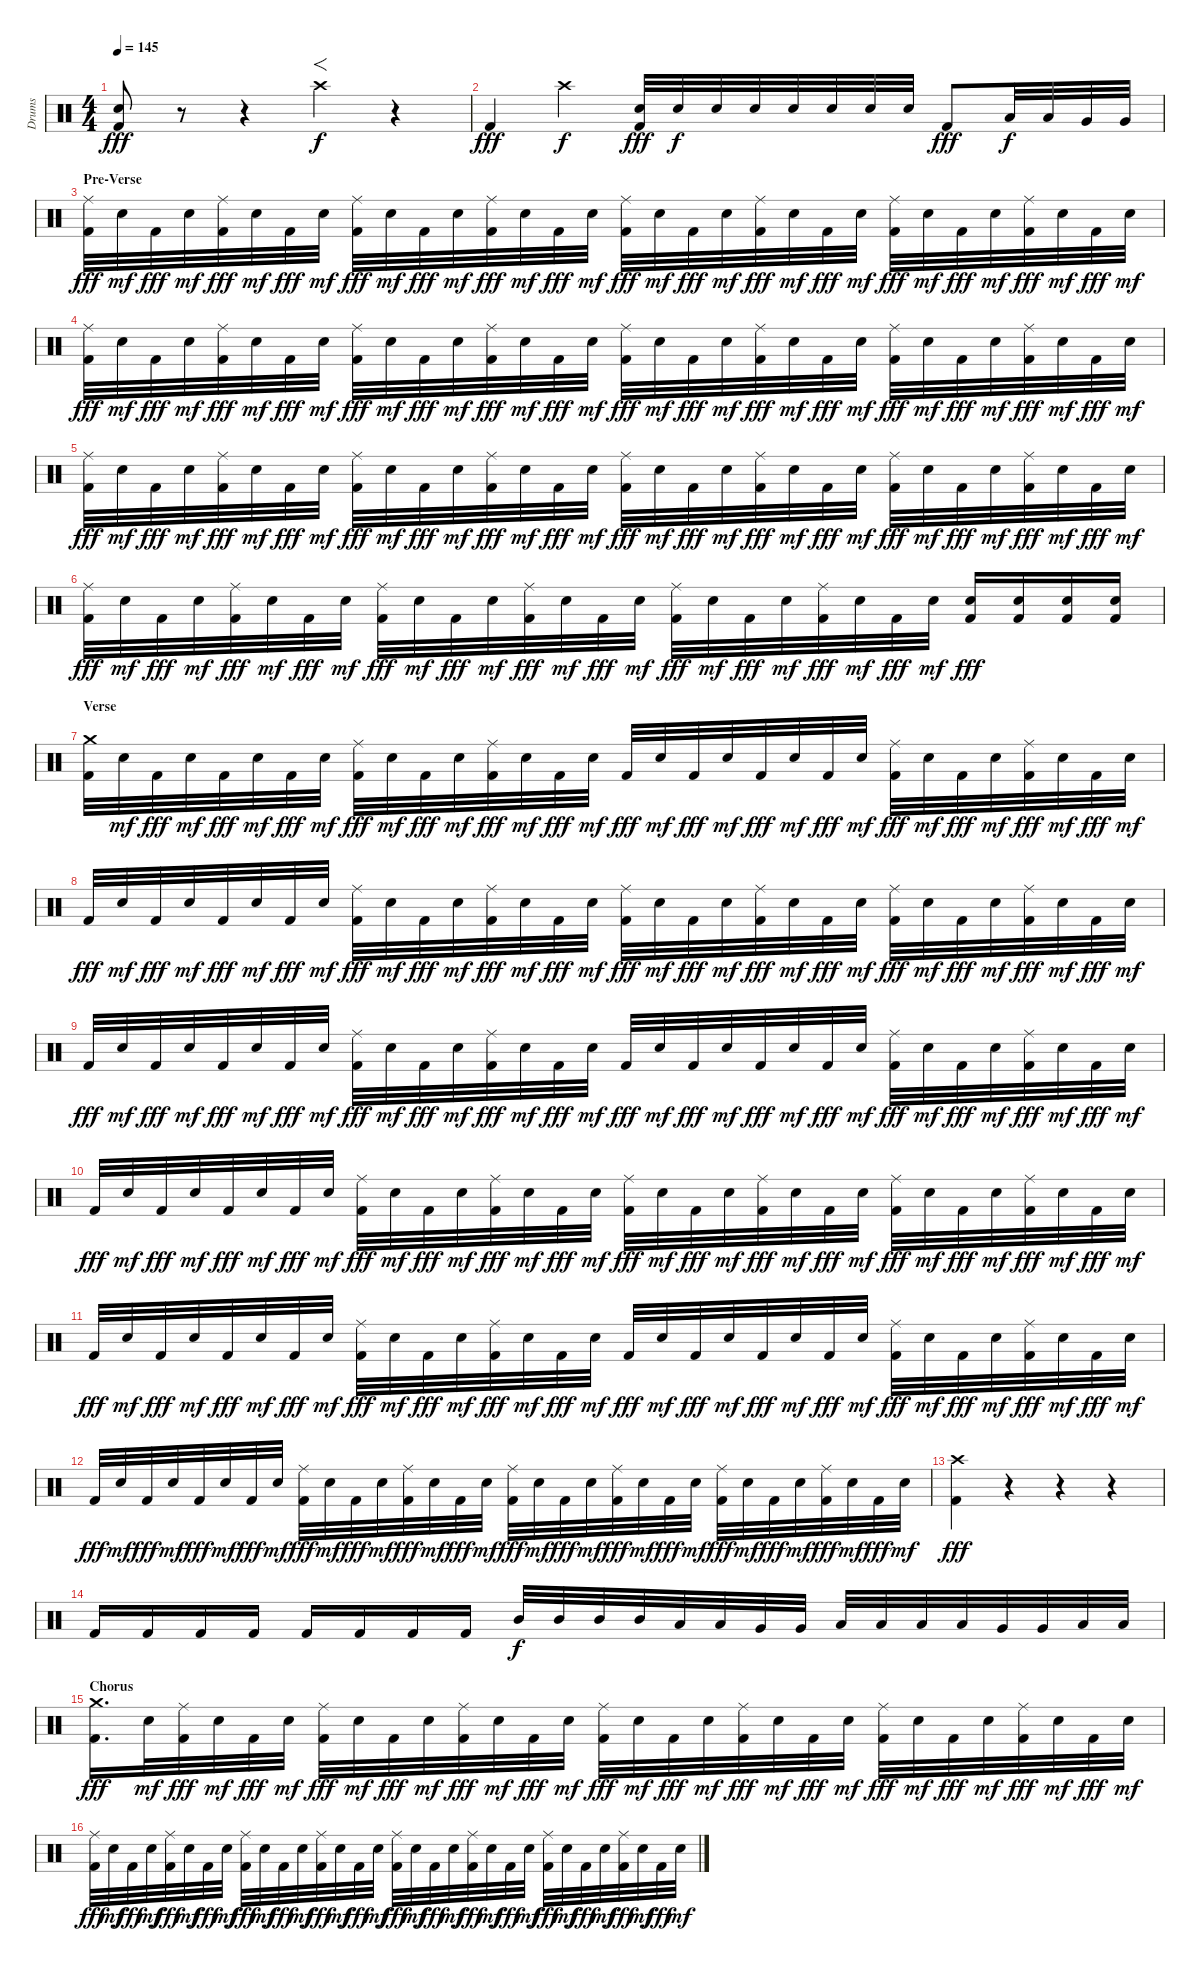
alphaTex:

\track ("Drums" "Drums") {instrument percussion}
\staff {score}
\articulation defaults
\ts (4 4)
\tempo 145
\clef neutral
\ks c
("Electric Snare (hit)" "Kick (hit) 2").8{dy fff} r.8 r.4 "Crash high (hit)".4{f dy f} r.4 |
"Kick (hit) 2".4{dy fff} "Crash high (hit)".4{dy f} ("Electric Snare (hit)" "Kick (hit) 2").32{dy fff} "Electric Snare (hit)".32{dy f} "Electric Snare (hit)".32 "Electric Snare (hit)".32 "Electric Snare (hit)".32 "Electric Snare (hit)".32 "Electric Snare (hit)".32 "Electric Snare (hit)".32 "Kick (hit) 2".8{dy fff} "Low Tom (hit)".32{dy f} "Low Tom (hit)".32 "Very Low Tom (hit)".32 "Very Low Tom (hit)".32 |
\section ("" "Pre-Verse")
("Ride (middle)" "Kick (hit) 2").32{dy fff} "Electric Snare (hit)".32{dy mf} "Kick (hit) 2".32{dy fff} "Electric Snare (hit)".32{dy mf} ("Ride (middle)" "Kick (hit) 2").32{dy fff} "Electric Snare (hit)".32{dy mf} "Kick (hit) 2".32{dy fff} "Electric Snare (hit)".32{dy mf} ("Ride (middle)" "Kick (hit) 2").32{dy fff} "Electric Snare (hit)".32{dy mf} "Kick (hit) 2".32{dy fff} "Electric Snare (hit)".32{dy mf} ("Ride (middle)" "Kick (hit) 2").32{dy fff} "Electric Snare (hit)".32{dy mf} "Kick (hit) 2".32{dy fff} "Electric Snare (hit)".32{dy mf} ("Ride (middle)" "Kick (hit) 2").32{dy fff} "Electric Snare (hit)".32{dy mf} "Kick (hit) 2".32{dy fff} "Electric Snare (hit)".32{dy mf} ("Ride (middle)" "Kick (hit) 2").32{dy fff} "Electric Snare (hit)".32{dy mf} "Kick (hit) 2".32{dy fff} "Electric Snare (hit)".32{dy mf} ("Ride (middle)" "Kick (hit) 2").32{dy fff} "Electric Snare (hit)".32{dy mf} "Kick (hit) 2".32{dy fff} "Electric Snare (hit)".32{dy mf} ("Ride (middle)" "Kick (hit) 2").32{dy fff} "Electric Snare (hit)".32{dy mf} "Kick (hit) 2".32{dy fff} "Electric Snare (hit)".32{dy mf} |
("Ride (middle)" "Kick (hit) 2").32{dy fff} "Electric Snare (hit)".32{dy mf} "Kick (hit) 2".32{dy fff} "Electric Snare (hit)".32{dy mf} ("Ride (middle)" "Kick (hit) 2").32{dy fff} "Electric Snare (hit)".32{dy mf} "Kick (hit) 2".32{dy fff} "Electric Snare (hit)".32{dy mf} ("Ride (middle)" "Kick (hit) 2").32{dy fff} "Electric Snare (hit)".32{dy mf} "Kick (hit) 2".32{dy fff} "Electric Snare (hit)".32{dy mf} ("Ride (middle)" "Kick (hit) 2").32{dy fff} "Electric Snare (hit)".32{dy mf} "Kick (hit) 2".32{dy fff} "Electric Snare (hit)".32{dy mf} ("Ride (middle)" "Kick (hit) 2").32{dy fff} "Electric Snare (hit)".32{dy mf} "Kick (hit) 2".32{dy fff} "Electric Snare (hit)".32{dy mf} ("Ride (middle)" "Kick (hit) 2").32{dy fff} "Electric Snare (hit)".32{dy mf} "Kick (hit) 2".32{dy fff} "Electric Snare (hit)".32{dy mf} ("Ride (middle)" "Kick (hit) 2").32{dy fff} "Electric Snare (hit)".32{dy mf} "Kick (hit) 2".32{dy fff} "Electric Snare (hit)".32{dy mf} ("Ride (middle)" "Kick (hit) 2").32{dy fff} "Electric Snare (hit)".32{dy mf} "Kick (hit) 2".32{dy fff} "Electric Snare (hit)".32{dy mf} |
("Ride (middle)" "Kick (hit) 2").32{dy fff} "Electric Snare (hit)".32{dy mf} "Kick (hit) 2".32{dy fff} "Electric Snare (hit)".32{dy mf} ("Ride (middle)" "Kick (hit) 2").32{dy fff} "Electric Snare (hit)".32{dy mf} "Kick (hit) 2".32{dy fff} "Electric Snare (hit)".32{dy mf} ("Ride (middle)" "Kick (hit) 2").32{dy fff} "Electric Snare (hit)".32{dy mf} "Kick (hit) 2".32{dy fff} "Electric Snare (hit)".32{dy mf} ("Ride (middle)" "Kick (hit) 2").32{dy fff} "Electric Snare (hit)".32{dy mf} "Kick (hit) 2".32{dy fff} "Electric Snare (hit)".32{dy mf} ("Ride (middle)" "Kick (hit) 2").32{dy fff} "Electric Snare (hit)".32{dy mf} "Kick (hit) 2".32{dy fff} "Electric Snare (hit)".32{dy mf} ("Ride (middle)" "Kick (hit) 2").32{dy fff} "Electric Snare (hit)".32{dy mf} "Kick (hit) 2".32{dy fff} "Electric Snare (hit)".32{dy mf} ("Ride (middle)" "Kick (hit) 2").32{dy fff} "Electric Snare (hit)".32{dy mf} "Kick (hit) 2".32{dy fff} "Electric Snare (hit)".32{dy mf} ("Ride (middle)" "Kick (hit) 2").32{dy fff} "Electric Snare (hit)".32{dy mf} "Kick (hit) 2".32{dy fff} "Electric Snare (hit)".32{dy mf} |
("Ride (middle)" "Kick (hit) 2").32{dy fff} "Electric Snare (hit)".32{dy mf} "Kick (hit) 2".32{dy fff} "Electric Snare (hit)".32{dy mf} ("Ride (middle)" "Kick (hit) 2").32{dy fff} "Electric Snare (hit)".32{dy mf} "Kick (hit) 2".32{dy fff} "Electric Snare (hit)".32{dy mf} ("Ride (middle)" "Kick (hit) 2").32{dy fff} "Electric Snare (hit)".32{dy mf} "Kick (hit) 2".32{dy fff} "Electric Snare (hit)".32{dy mf} ("Ride (middle)" "Kick (hit) 2").32{dy fff} "Electric Snare (hit)".32{dy mf} "Kick (hit) 2".32{dy fff} "Electric Snare (hit)".32{dy mf} ("Ride (middle)" "Kick (hit) 2").32{dy fff} "Electric Snare (hit)".32{dy mf} "Kick (hit) 2".32{dy fff} "Electric Snare (hit)".32{dy mf} ("Ride (middle)" "Kick (hit) 2").32{dy fff} "Electric Snare (hit)".32{dy mf} "Kick (hit) 2".32{dy fff} "Electric Snare (hit)".32{dy mf} ("Electric Snare (hit)" "Kick (hit) 2").16{dy fff} ("Electric Snare (hit)" "Kick (hit) 2").16 ("Electric Snare (hit)" "Kick (hit) 2").16 ("Electric Snare (hit)" "Kick (hit) 2").16 |
\section ("" "Verse")
("Crash medium (hit)" "Kick (hit) 2").32 "Electric Snare (hit)".32{dy mf} "Kick (hit) 2".32{dy fff} "Electric Snare (hit)".32{dy mf} "Kick (hit) 2".32{dy fff} "Electric Snare (hit)".32{dy mf} "Kick (hit) 2".32{dy fff} "Electric Snare (hit)".32{dy mf} ("Ride (middle)" "Kick (hit) 2").32{dy fff} "Electric Snare (hit)".32{dy mf} "Kick (hit) 2".32{dy fff} "Electric Snare (hit)".32{dy mf} ("Ride (middle)" "Kick (hit) 2").32{dy fff} "Electric Snare (hit)".32{dy mf} "Kick (hit) 2".32{dy fff} "Electric Snare (hit)".32{dy mf} "Kick (hit) 2".32{dy fff} "Electric Snare (hit)".32{dy mf} "Kick (hit) 2".32{dy fff} "Electric Snare (hit)".32{dy mf} "Kick (hit) 2".32{dy fff} "Electric Snare (hit)".32{dy mf} "Kick (hit) 2".32{dy fff} "Electric Snare (hit)".32{dy mf} ("Ride (middle)" "Kick (hit) 2").32{dy fff} "Electric Snare (hit)".32{dy mf} "Kick (hit) 2".32{dy fff} "Electric Snare (hit)".32{dy mf} ("Ride (middle)" "Kick (hit) 2").32{dy fff} "Electric Snare (hit)".32{dy mf} "Kick (hit) 2".32{dy fff} "Electric Snare (hit)".32{dy mf} |
"Kick (hit) 2".32{dy fff} "Electric Snare (hit)".32{dy mf} "Kick (hit) 2".32{dy fff} "Electric Snare (hit)".32{dy mf} "Kick (hit) 2".32{dy fff} "Electric Snare (hit)".32{dy mf} "Kick (hit) 2".32{dy fff} "Electric Snare (hit)".32{dy mf} ("Ride (middle)" "Kick (hit) 2").32{dy fff} "Electric Snare (hit)".32{dy mf} "Kick (hit) 2".32{dy fff} "Electric Snare (hit)".32{dy mf} ("Ride (middle)" "Kick (hit) 2").32{dy fff} "Electric Snare (hit)".32{dy mf} "Kick (hit) 2".32{dy fff} "Electric Snare (hit)".32{dy mf} ("Ride (middle)" "Kick (hit) 2").32{dy fff} "Electric Snare (hit)".32{dy mf} "Kick (hit) 2".32{dy fff} "Electric Snare (hit)".32{dy mf} ("Ride (middle)" "Kick (hit) 2").32{dy fff} "Electric Snare (hit)".32{dy mf} "Kick (hit) 2".32{dy fff} "Electric Snare (hit)".32{dy mf} ("Ride (middle)" "Kick (hit) 2").32{dy fff} "Electric Snare (hit)".32{dy mf} "Kick (hit) 2".32{dy fff} "Electric Snare (hit)".32{dy mf} ("Ride (middle)" "Kick (hit) 2").32{dy fff} "Electric Snare (hit)".32{dy mf} "Kick (hit) 2".32{dy fff} "Electric Snare (hit)".32{dy mf} |
"Kick (hit) 2".32{dy fff} "Electric Snare (hit)".32{dy mf} "Kick (hit) 2".32{dy fff} "Electric Snare (hit)".32{dy mf} "Kick (hit) 2".32{dy fff} "Electric Snare (hit)".32{dy mf} "Kick (hit) 2".32{dy fff} "Electric Snare (hit)".32{dy mf} ("Ride (middle)" "Kick (hit) 2").32{dy fff} "Electric Snare (hit)".32{dy mf} "Kick (hit) 2".32{dy fff} "Electric Snare (hit)".32{dy mf} ("Ride (middle)" "Kick (hit) 2").32{dy fff} "Electric Snare (hit)".32{dy mf} "Kick (hit) 2".32{dy fff} "Electric Snare (hit)".32{dy mf} "Kick (hit) 2".32{dy fff} "Electric Snare (hit)".32{dy mf} "Kick (hit) 2".32{dy fff} "Electric Snare (hit)".32{dy mf} "Kick (hit) 2".32{dy fff} "Electric Snare (hit)".32{dy mf} "Kick (hit) 2".32{dy fff} "Electric Snare (hit)".32{dy mf} ("Ride (middle)" "Kick (hit) 2").32{dy fff} "Electric Snare (hit)".32{dy mf} "Kick (hit) 2".32{dy fff} "Electric Snare (hit)".32{dy mf} ("Ride (middle)" "Kick (hit) 2").32{dy fff} "Electric Snare (hit)".32{dy mf} "Kick (hit) 2".32{dy fff} "Electric Snare (hit)".32{dy mf} |
"Kick (hit) 2".32{dy fff} "Electric Snare (hit)".32{dy mf} "Kick (hit) 2".32{dy fff} "Electric Snare (hit)".32{dy mf} "Kick (hit) 2".32{dy fff} "Electric Snare (hit)".32{dy mf} "Kick (hit) 2".32{dy fff} "Electric Snare (hit)".32{dy mf} ("Ride (middle)" "Kick (hit) 2").32{dy fff} "Electric Snare (hit)".32{dy mf} "Kick (hit) 2".32{dy fff} "Electric Snare (hit)".32{dy mf} ("Ride (middle)" "Kick (hit) 2").32{dy fff} "Electric Snare (hit)".32{dy mf} "Kick (hit) 2".32{dy fff} "Electric Snare (hit)".32{dy mf} ("Ride (middle)" "Kick (hit) 2").32{dy fff} "Electric Snare (hit)".32{dy mf} "Kick (hit) 2".32{dy fff} "Electric Snare (hit)".32{dy mf} ("Ride (middle)" "Kick (hit) 2").32{dy fff} "Electric Snare (hit)".32{dy mf} "Kick (hit) 2".32{dy fff} "Electric Snare (hit)".32{dy mf} ("Ride (middle)" "Kick (hit) 2").32{dy fff} "Electric Snare (hit)".32{dy mf} "Kick (hit) 2".32{dy fff} "Electric Snare (hit)".32{dy mf} ("Ride (middle)" "Kick (hit) 2").32{dy fff} "Electric Snare (hit)".32{dy mf} "Kick (hit) 2".32{dy fff} "Electric Snare (hit)".32{dy mf} |
"Kick (hit) 2".32{dy fff} "Electric Snare (hit)".32{dy mf} "Kick (hit) 2".32{dy fff} "Electric Snare (hit)".32{dy mf} "Kick (hit) 2".32{dy fff} "Electric Snare (hit)".32{dy mf} "Kick (hit) 2".32{dy fff} "Electric Snare (hit)".32{dy mf} ("Ride (middle)" "Kick (hit) 2").32{dy fff} "Electric Snare (hit)".32{dy mf} "Kick (hit) 2".32{dy fff} "Electric Snare (hit)".32{dy mf} ("Ride (middle)" "Kick (hit) 2").32{dy fff} "Electric Snare (hit)".32{dy mf} "Kick (hit) 2".32{dy fff} "Electric Snare (hit)".32{dy mf} "Kick (hit) 2".32{dy fff} "Electric Snare (hit)".32{dy mf} "Kick (hit) 2".32{dy fff} "Electric Snare (hit)".32{dy mf} "Kick (hit) 2".32{dy fff} "Electric Snare (hit)".32{dy mf} "Kick (hit) 2".32{dy fff} "Electric Snare (hit)".32{dy mf} ("Ride (middle)" "Kick (hit) 2").32{dy fff} "Electric Snare (hit)".32{dy mf} "Kick (hit) 2".32{dy fff} "Electric Snare (hit)".32{dy mf} ("Ride (middle)" "Kick (hit) 2").32{dy fff} "Electric Snare (hit)".32{dy mf} "Kick (hit) 2".32{dy fff} "Electric Snare (hit)".32{dy mf} |
"Kick (hit) 2".32{dy fff} "Electric Snare (hit)".32{dy mf} "Kick (hit) 2".32{dy fff} "Electric Snare (hit)".32{dy mf} "Kick (hit) 2".32{dy fff} "Electric Snare (hit)".32{dy mf} "Kick (hit) 2".32{dy fff} "Electric Snare (hit)".32{dy mf} ("Ride (middle)" "Kick (hit) 2").32{dy fff} "Electric Snare (hit)".32{dy mf} "Kick (hit) 2".32{dy fff} "Electric Snare (hit)".32{dy mf} ("Ride (middle)" "Kick (hit) 2").32{dy fff} "Electric Snare (hit)".32{dy mf} "Kick (hit) 2".32{dy fff} "Electric Snare (hit)".32{dy mf} ("Ride (middle)" "Kick (hit) 2").32{dy fff} "Electric Snare (hit)".32{dy mf} "Kick (hit) 2".32{dy fff} "Electric Snare (hit)".32{dy mf} ("Ride (middle)" "Kick (hit) 2").32{dy fff} "Electric Snare (hit)".32{dy mf} "Kick (hit) 2".32{dy fff} "Electric Snare (hit)".32{dy mf} ("Ride (middle)" "Kick (hit) 2").32{dy fff} "Electric Snare (hit)".32{dy mf} "Kick (hit) 2".32{dy fff} "Electric Snare (hit)".32{dy mf} ("Ride (middle)" "Kick (hit) 2").32{dy fff} "Electric Snare (hit)".32{dy mf} "Kick (hit) 2".32{dy fff} "Electric Snare (hit)".32{dy mf} |
("Crash high (hit)" "Kick (hit) 2").4{dy fff} r.4 r.4 r.4 |
"Kick (hit) 2".16 "Kick (hit) 2".16 "Kick (hit) 2".16 "Kick (hit) 2".16 "Kick (hit) 2".16 "Kick (hit) 2".16 "Kick (hit) 2".16 "Kick (hit) 2".16 "Mid Tom (hit)".32{dy f} "Mid Tom (hit)".32 "Mid Tom (hit)".32 "Mid Tom (hit)".32 "Low Tom (hit)".32 "Low Tom (hit)".32 "Very Low Tom (hit)".32 "Very Low Tom (hit)".32 "Low Tom (hit)".32 "Low Tom (hit)".32 "Low Tom (hit)".32 "Low Tom (hit)".32 "Very Low Tom (hit)".32 "Very Low Tom (hit)".32 "Low Floor Tom (hit)".32 "Low Floor Tom (hit)".32 |
\section ("" "Chorus")
("Crash medium (hit)" "Kick (hit) 2").16{d dy fff} "Electric Snare (hit)".32{dy mf} ("Ride (middle)" "Kick (hit) 2").32{dy fff} "Electric Snare (hit)".32{dy mf} "Kick (hit) 2".32{dy fff} "Electric Snare (hit)".32{dy mf} ("Ride (middle)" "Kick (hit) 2").32{dy fff} "Electric Snare (hit)".32{dy mf} "Kick (hit) 2".32{dy fff} "Electric Snare (hit)".32{dy mf} ("Ride (middle)" "Kick (hit) 2").32{dy fff} "Electric Snare (hit)".32{dy mf} "Kick (hit) 2".32{dy fff} "Electric Snare (hit)".32{dy mf} ("Ride (middle)" "Kick (hit) 2").32{dy fff} "Electric Snare (hit)".32{dy mf} "Kick (hit) 2".32{dy fff} "Electric Snare (hit)".32{dy mf} ("Ride (middle)" "Kick (hit) 2").32{dy fff} "Electric Snare (hit)".32{dy mf} "Kick (hit) 2".32{dy fff} "Electric Snare (hit)".32{dy mf} ("Ride (middle)" "Kick (hit) 2").32{dy fff} "Electric Snare (hit)".32{dy mf} "Kick (hit) 2".32{dy fff} "Electric Snare (hit)".32{dy mf} ("Ride (middle)" "Kick (hit) 2").32{dy fff} "Electric Snare (hit)".32{dy mf} "Kick (hit) 2".32{dy fff} "Electric Snare (hit)".32{dy mf} |
("Ride (middle)" "Kick (hit) 2").32{dy fff} "Electric Snare (hit)".32{dy mf} "Kick (hit) 2".32{dy fff} "Electric Snare (hit)".32{dy mf} ("Ride (middle)" "Kick (hit) 2").32{dy fff} "Electric Snare (hit)".32{dy mf} "Kick (hit) 2".32{dy fff} "Electric Snare (hit)".32{dy mf} ("Ride (middle)" "Kick (hit) 2").32{dy fff} "Electric Snare (hit)".32{dy mf} "Kick (hit) 2".32{dy fff} "Electric Snare (hit)".32{dy mf} ("Ride (middle)" "Kick (hit) 2").32{dy fff} "Electric Snare (hit)".32{dy mf} "Kick (hit) 2".32{dy fff} "Electric Snare (hit)".32{dy mf} ("Ride (middle)" "Kick (hit) 2").32{dy fff} "Electric Snare (hit)".32{dy mf} "Kick (hit) 2".32{dy fff} "Electric Snare (hit)".32{dy mf} ("Ride (middle)" "Kick (hit) 2").32{dy fff} "Electric Snare (hit)".32{dy mf} "Kick (hit) 2".32{dy fff} "Electric Snare (hit)".32{dy mf} ("Ride (middle)" "Kick (hit) 2").32{dy fff} "Electric Snare (hit)".32{dy mf} "Kick (hit) 2".32{dy fff} "Electric Snare (hit)".32{dy mf} ("Ride (middle)" "Kick (hit) 2").32{dy fff} "Electric Snare (hit)".32{dy mf} "Kick (hit) 2".32{dy fff} "Electric Snare (hit)".32{dy mf}
